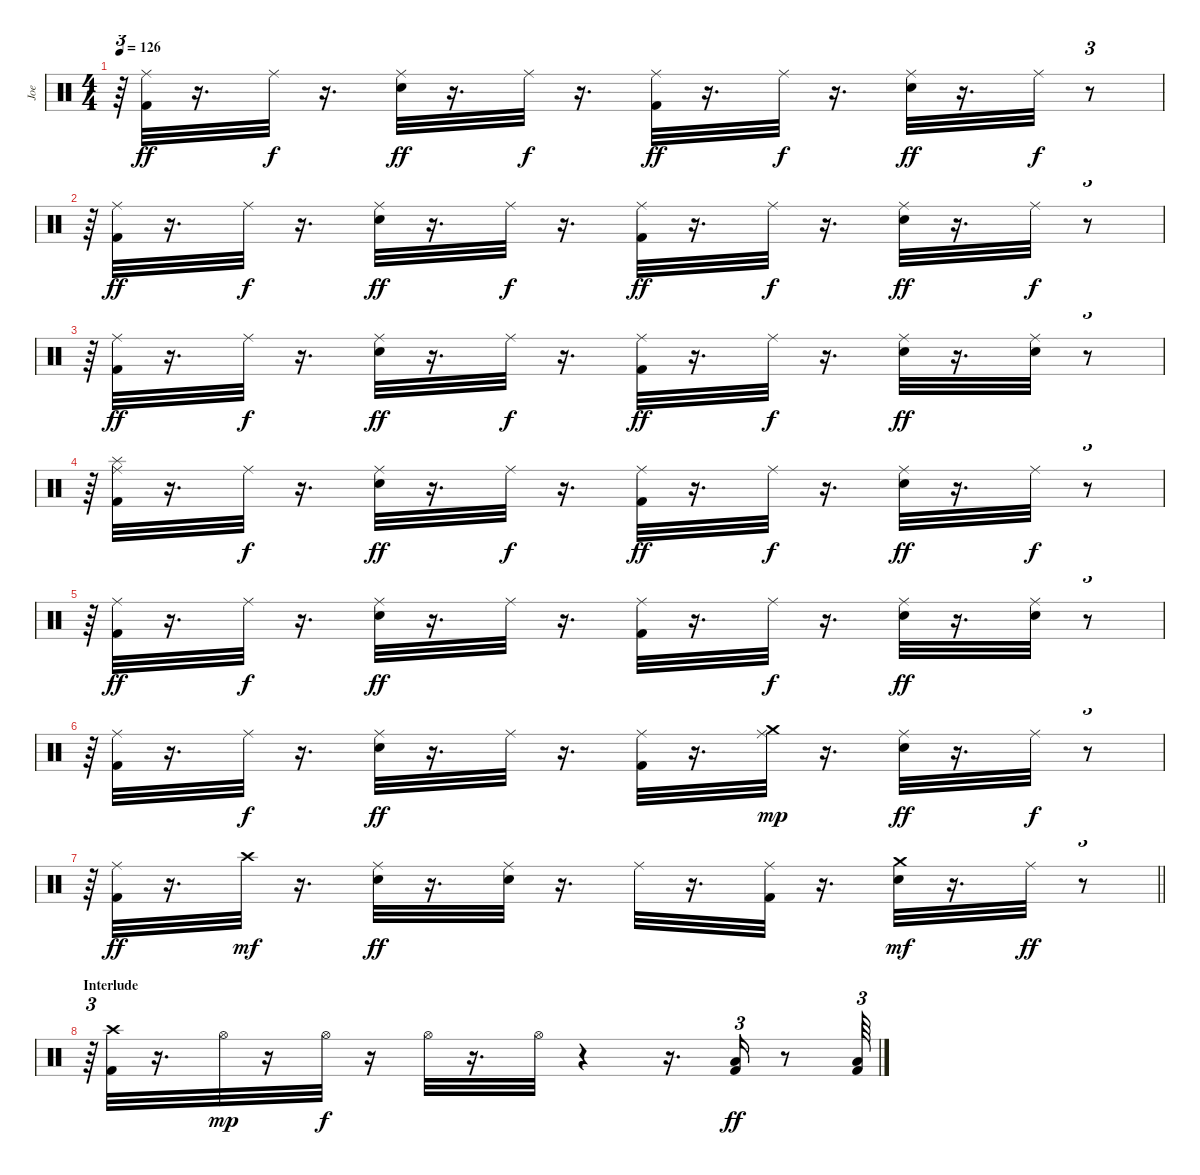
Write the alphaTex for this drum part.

\track ("Joe" "Joe") {instrument percussion}
\staff {score}
\articulation defaults
\ts (4 4)
\tempo 126
\clef neutral
\ks c
r.64{tu (3 2) dy ff} ("Kick (hit) 2" "Ride (middle)").32 r.16{d} "Ride (middle)".32{dy f} r.16{d} ("Electric Snare (hit)" "Ride (middle)").32{dy ff} r.16{d} "Ride (middle)".32{dy f} r.16{d} ("Kick (hit) 2" "Ride (middle)").32{dy ff} r.16{d} "Ride (middle)".32{dy f} r.16{d} ("Electric Snare (hit)" "Ride (middle)").32{dy ff} r.16{d} "Ride (middle)".32{dy f} r.8{tu (3 2)} |
r.64{tu (3 2)} ("Ride (middle)" "Kick (hit) 2").32{dy ff} r.16{d} "Ride (middle)".32{dy f} r.16{d} ("Electric Snare (hit)" "Ride (middle)").32{dy ff} r.16{d} "Ride (middle)".32{dy f} r.16{d} ("Kick (hit) 2" "Ride (middle)").32{dy ff} r.16{d} "Ride (middle)".32{dy f} r.16{d} ("Ride (middle)" "Electric Snare (hit)").32{dy ff} r.16{d} "Ride (middle)".32{dy f} r.8{tu (3 2)} |
r.64{tu (3 2)} ("Ride (middle)" "Kick (hit) 2").32{dy ff} r.16{d} "Ride (middle)".32{dy f} r.16{d} ("Electric Snare (hit)" "Ride (middle)").32{dy ff} r.16{d} "Ride (middle)".32{dy f} r.16{d} ("Kick (hit) 2" "Ride (middle)").32{dy ff} r.16{d} "Ride (middle)".32{dy f} r.16{d} ("Electric Snare (hit)" "Ride (middle)").32{dy ff} r.16{d} ("Ride (middle)" "Electric Snare (hit)").32 r.8{tu (3 2)} |
r.64{tu (3 2)} ("Splash (hit)" "Ride (middle)" "Kick (hit) 2").32 r.16{d} "Ride (middle)".32{dy f} r.16{d} ("Ride (middle)" "Electric Snare (hit)").32{dy ff} r.16{d} "Ride (middle)".32{dy f} r.16{d} ("Ride (middle)" "Kick (hit) 2").32{dy ff} r.16{d} "Ride (middle)".32{dy f} r.16{d} ("Ride (middle)" "Electric Snare (hit)").32{dy ff} r.16{d} "Ride (middle)".32{dy f} r.8{tu (3 2)} |
r.64{tu (3 2)} ("Ride (middle)" "Kick (hit) 2").32{dy ff} r.16{d} "Ride (middle)".32{dy f} r.16{d} ("Ride (middle)" "Electric Snare (hit)").32{dy ff} r.16{d} "Ride (middle)".32 r.16{d} ("Kick (hit) 2" "Ride (middle)").32 r.16{d} "Ride (middle)".32{dy f} r.16{d} ("Ride (middle)" "Electric Snare (hit)").32{dy ff} r.16{d} ("Electric Snare (hit)" "Ride (middle)").32 r.8{tu (3 2)} |
r.64{tu (3 2)} ("Kick (hit) 2" "Ride (middle)").32 r.16{d} "Ride (middle)".32{dy f} r.16{d} ("Ride (middle)" "Electric Snare (hit)").32{dy ff} r.16{d} "Ride (middle)".32 r.16{d} ("Ride (middle)" "Kick (hit) 2").32 r.16{d} ("Crash medium (hit)" "Ride (middle)").32{dy mp} r.16{d} ("Ride (middle)" "Electric Snare (hit)").32{dy ff} r.16{d} "Ride (middle)".32{dy f} r.8{tu (3 2)} |
\barLineRight lightlight
r.64{tu (3 2)} ("Ride (middle)" "Kick (hit) 2").32{dy ff} r.16{d} "Crash high (hit)".32{dy mf} r.16{d} ("Ride (middle)" "Electric Snare (hit)").32{dy ff} r.16{d} ("Ride (middle)" "Electric Snare (hit)").32 r.16{d} "Ride (middle)".32 r.16{d} ("Kick (hit) 2" "Ride (middle)").32 r.16{d} ("Electric Snare (hit)" "Crash medium (hit)").32{dy mf} r.16{d} "Ride (middle)".32{dy ff} r.8{tu (3 2)} |
\section ("" "Interlude")
r.64{tu (3 2)} ("Crash high (hit)" "Kick (hit) 2").32 r.16{d} "Hi-Hat (open)".32{dy mp} r.16 "Hi-Hat (open)".32{dy f} r.16 "Hi-Hat (open)".32 r.16{d} "Hi-Hat (open)".32 r.4 r.16{d} ("Kick (hit) 2" "Low Tom (hit)").16{tu (3 2) dy ff} r.8 ("Kick (hit) 2" "Low Floor Tom (hit)").64{tu (3 2)}
